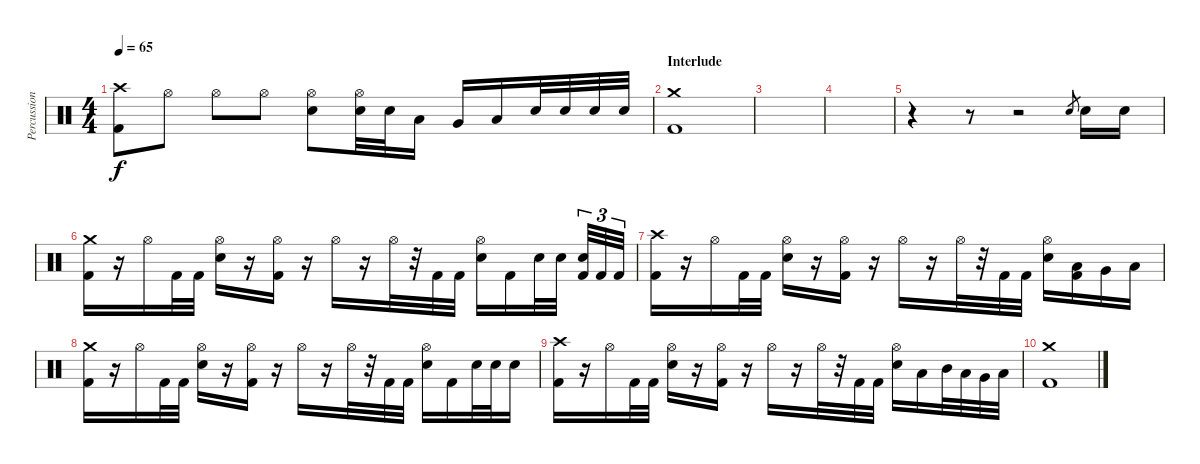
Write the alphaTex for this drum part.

\track ("Percussion" "Percussion") {instrument percussion}
\staff {score}
\articulation defaults
\ts (4 4)
\tempo 65
\clef neutral
\ks c
("Crash high (hit)" "Kick (hit) 2").8{dy f} "Hi-Hat (open)".8 "Hi-Hat (open)".8 "Hi-Hat (open)".8 ("Hi-Hat (open)" "Electric Snare (hit)").8 ("Hi-Hat (open)" "Electric Snare (hit)").32 "Electric Snare (hit)".32 "Low Tom (hit)".16 "Very Low Tom (hit)".16 "Low Floor Tom (hit)".16 "Electric Snare (hit)".32 "Electric Snare (hit)".32 "Electric Snare (hit)".32 "Electric Snare (hit)".32 |
\section ("" "Interlude")
("Crash medium (hit)" "Kick (hit) 2").1 |
|
|
r.4 r.8 r.2 "Electric Snare (hit)".8{gr} "Electric Snare (hit)".16 "Electric Snare (hit)".16 |
("Crash medium (hit)" "Kick (hit) 2").16 r.16 "Hi-Hat (open)".16 "Kick (hit) 2".32 "Kick (hit) 2".32 ("Hi-Hat (open)" "Electric Snare (hit)").16 r.16 ("Hi-Hat (open)" "Kick (hit) 2").16 r.16 "Hi-Hat (open)".16 r.16 "Hi-Hat (open)".32 r.32 "Kick (hit) 2".32 "Kick (hit) 2".32 ("Hi-Hat (open)" "Electric Snare (hit)").16 "Kick (hit) 2".16 "Electric Snare (hit)".32 "Electric Snare (hit)".32 ("Electric Snare (hit)" "Kick (hit) 2").32{tu (3 2)} "Kick (hit) 2".32{tu (3 2)} "Kick (hit) 2".32{tu (3 2)} |
("Crash high (hit)" "Kick (hit) 2").16 r.16 "Hi-Hat (open)".16 "Kick (hit) 2".32 "Kick (hit) 2".32 ("Hi-Hat (open)" "Electric Snare (hit)").16 r.16 ("Hi-Hat (open)" "Kick (hit) 2").16 r.16 "Hi-Hat (open)".16 r.16 "Hi-Hat (open)".32 r.32 "Kick (hit) 2".32 "Kick (hit) 2".32 ("Hi-Hat (open)" "Electric Snare (hit)").16 ("Low Tom (hit)" "Kick (hit) 2").16 "Very Low Tom (hit)".16 "Low Floor Tom (hit)".16 |
("Crash medium (hit)" "Kick (hit) 2").16 r.16 "Hi-Hat (open)".16 "Kick (hit) 2".32 "Kick (hit) 2".32 ("Hi-Hat (open)" "Electric Snare (hit)").16 r.16 ("Hi-Hat (open)" "Kick (hit) 2").16 r.16 "Hi-Hat (open)".16 r.16 "Hi-Hat (open)".32 r.32 "Kick (hit) 2".32 "Kick (hit) 2".32 ("Hi-Hat (open)" "Electric Snare (hit)").16 "Kick (hit) 2".16 "Electric Snare (hit)".32 "Electric Snare (hit)".32 "Electric Snare (hit)".16 |
("Crash high (hit)" "Kick (hit) 2").16 r.16 "Hi-Hat (open)".16 "Kick (hit) 2".32 "Kick (hit) 2".32 ("Hi-Hat (open)" "Electric Snare (hit)").16 r.16 ("Hi-Hat (open)" "Kick (hit) 2").16 r.16 "Hi-Hat (open)".16 r.16 "Hi-Hat (open)".32 r.32 "Kick (hit) 2".32 "Kick (hit) 2".32 ("Hi-Hat (open)" "Electric Snare (hit)").16 "Low Floor Tom (hit)".16 "Mid Tom (hit)".32 "Low Tom (hit)".32 "Very Low Tom (hit)".32 "Low Floor Tom (hit)".32 |
("Crash medium (hit)" "Kick (hit) 2").1
